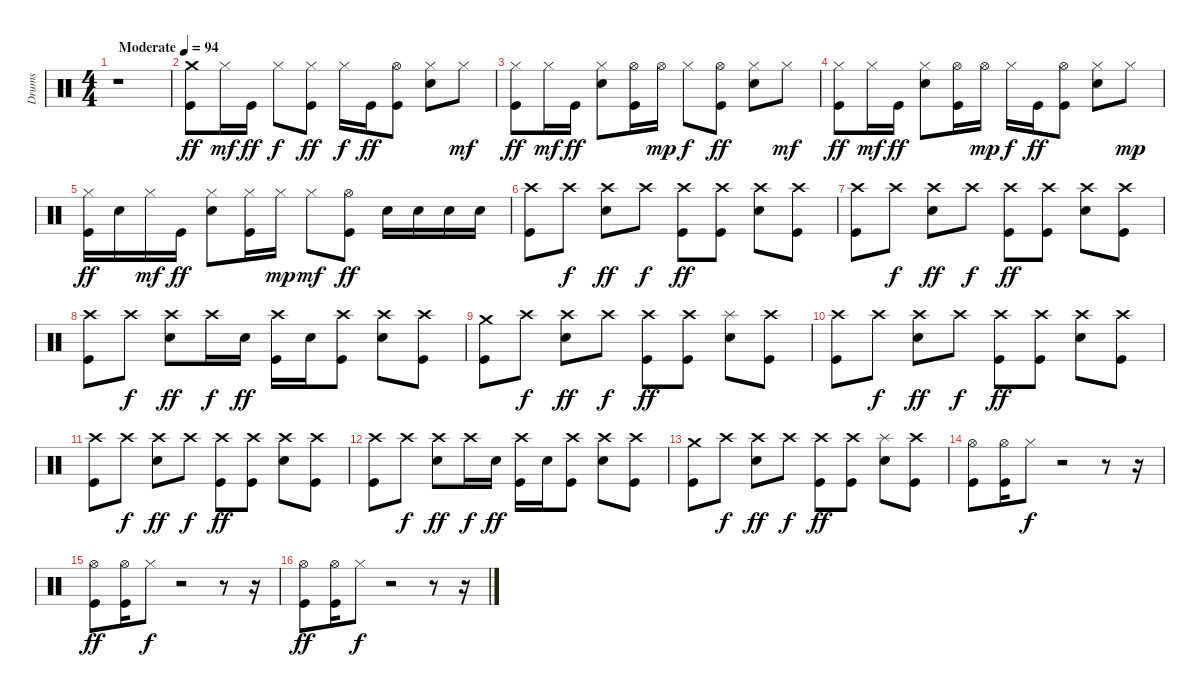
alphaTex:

\track ("Drums" "Drums") {instrument percussion}
\staff {score}
\articulation defaults
\ts (4 4)
\tempo (94 "Moderate")
\clef neutral
\ks c
r.1{dy ff} |
("Crash medium (hit)" "Kick (hit)").8 "Hi-Hat (closed)".16{dy mf} "Kick (hit)".16{dy ff} "Hi-Hat (closed)".8{dy f} ("Hi-Hat (closed)" "Kick (hit)").8{dy ff} "Hi-Hat (closed)".16{dy f} "Kick (hit)".16{dy ff} ("Hi-Hat (open)" "Kick (hit)").8 ("Hi-Hat (closed)" "Electric Snare (hit)").8 "Hi-Hat (closed)".8{dy mf} |
("Hi-Hat (closed)" "Kick (hit)").8{dy ff} "Hi-Hat (closed)".16{dy mf} "Kick (hit)".16{dy ff} ("Hi-Hat (closed)" "Electric Snare (hit)").8 ("Hi-Hat (open)" "Kick (hit)").16 "Hi-Hat (open)".16{dy mp} "Hi-Hat (closed)".8{dy f} ("Hi-Hat (open)" "Kick (hit)").8{dy ff} ("Hi-Hat (closed)" "Electric Snare (hit)").8 "Hi-Hat (closed)".8{dy mf} |
("Hi-Hat (closed)" "Kick (hit)").8{dy ff} "Hi-Hat (closed)".16{dy mf} "Kick (hit)".16{dy ff} ("Hi-Hat (closed)" "Electric Snare (hit)").8 ("Hi-Hat (open)" "Kick (hit)").16 "Hi-Hat (open)".16{dy mp} "Hi-Hat (closed)".16{dy f} "Kick (hit)".16{dy ff} ("Hi-Hat (open)" "Kick (hit)").8 ("Hi-Hat (closed)" "Electric Snare (hit)").8 "Hi-Hat (closed)".8{dy mp} |
("Hi-Hat (closed)" "Kick (hit)").16{dy ff} "Electric Snare (hit)".16 "Hi-Hat (closed)".16{dy mf} "Kick (hit)".16{dy ff} ("Hi-Hat (closed)" "Electric Snare (hit)").8 ("Hi-Hat (closed)" "Kick (hit)").16 "Hi-Hat (closed)".16{dy mp} "Hi-Hat (closed)".8{dy mf} ("Hi-Hat (open)" "Kick (hit)").8{dy ff} "Electric Snare (hit)".16 "Electric Snare (hit)".16 "Electric Snare (hit)".16 "Electric Snare (hit)".16 |
("Crash high (hit)" "Kick (hit)").8 "Crash high (hit)".8{dy f} ("Crash high (hit)" "Electric Snare (hit)").8{dy ff} "Crash high (hit)".8{dy f} ("Crash high (hit)" "Kick (hit)").8{dy ff} ("Crash high (hit)" "Kick (hit)").8 ("Crash high (hit)" "Electric Snare (hit)").8 ("Crash high (hit)" "Kick (hit)").8 |
("Crash high (hit)" "Kick (hit)").8 "Crash high (hit)".8{dy f} ("Crash high (hit)" "Electric Snare (hit)").8{dy ff} "Crash high (hit)".8{dy f} ("Crash high (hit)" "Kick (hit)").8{dy ff} ("Crash high (hit)" "Kick (hit)").8 ("Crash high (hit)" "Electric Snare (hit)").8 ("Crash high (hit)" "Kick (hit)").8 |
("Crash high (hit)" "Kick (hit)").8 "Crash high (hit)".8{dy f} ("Crash high (hit)" "Electric Snare (hit)").8{dy ff} "Crash high (hit)".16{dy f} "Electric Snare (hit)".16{dy ff} ("Crash high (hit)" "Kick (hit)").16 "Electric Snare (hit)".16 ("Crash high (hit)" "Kick (hit)").8 ("Crash high (hit)" "Electric Snare (hit)").8 ("Crash high (hit)" "Kick (hit)").8 |
("Crash medium (hit)" "Kick (hit)").8 "Crash high (hit)".8{dy f} ("Crash high (hit)" "Electric Snare (hit)").8{dy ff} "Crash high (hit)".8{dy f} ("Crash high (hit)" "Kick (hit)").8{dy ff} ("Crash high (hit)" "Kick (hit)").8 ("Splash (hit)" "Electric Snare (hit)").8 ("Crash high (hit)" "Kick (hit)").8 |
("Crash high (hit)" "Kick (hit)").8 "Crash high (hit)".8{dy f} ("Crash high (hit)" "Electric Snare (hit)").8{dy ff} "Crash high (hit)".8{dy f} ("Crash high (hit)" "Kick (hit)").8{dy ff} ("Crash high (hit)" "Kick (hit)").8 ("Crash high (hit)" "Electric Snare (hit)").8 ("Crash high (hit)" "Kick (hit)").8 |
("Crash high (hit)" "Kick (hit)").8 "Crash high (hit)".8{dy f} ("Crash high (hit)" "Electric Snare (hit)").8{dy ff} "Crash high (hit)".8{dy f} ("Crash high (hit)" "Kick (hit)").8{dy ff} ("Crash high (hit)" "Kick (hit)").8 ("Crash high (hit)" "Electric Snare (hit)").8 ("Crash high (hit)" "Kick (hit)").8 |
("Crash high (hit)" "Kick (hit)").8 "Crash high (hit)".8{dy f} ("Crash high (hit)" "Electric Snare (hit)").8{dy ff} "Crash high (hit)".16{dy f} "Electric Snare (hit)".16{dy ff} ("Crash high (hit)" "Kick (hit)").16 "Electric Snare (hit)".16 ("Crash high (hit)" "Kick (hit)").8 ("Crash high (hit)" "Electric Snare (hit)").8 ("Crash high (hit)" "Kick (hit)").8 |
("Crash medium (hit)" "Kick (hit)").8 "Crash high (hit)".8{dy f} ("Crash high (hit)" "Electric Snare (hit)").8{dy ff} "Crash high (hit)".8{dy f} ("Crash high (hit)" "Kick (hit)").8{dy ff} ("Crash high (hit)" "Kick (hit)").8 ("Splash (hit)" "Electric Snare (hit)").8 ("Crash high (hit)" "Kick (hit)").8 |
("Hi-Hat (open)" "Kick (hit)").8 ("Hi-Hat (open)" "Kick (hit)").16 "Hi-Hat (closed)".8{dy f} r.2 r.8 r.16 |
("Hi-Hat (open)" "Kick (hit)").8{dy ff} ("Hi-Hat (open)" "Kick (hit)").16 "Hi-Hat (closed)".8{dy f} r.2 r.8 r.16 |
("Hi-Hat (open)" "Kick (hit)").8{dy ff} ("Hi-Hat (open)" "Kick (hit)").16 "Hi-Hat (closed)".8{dy f} r.2 r.8 r.16
